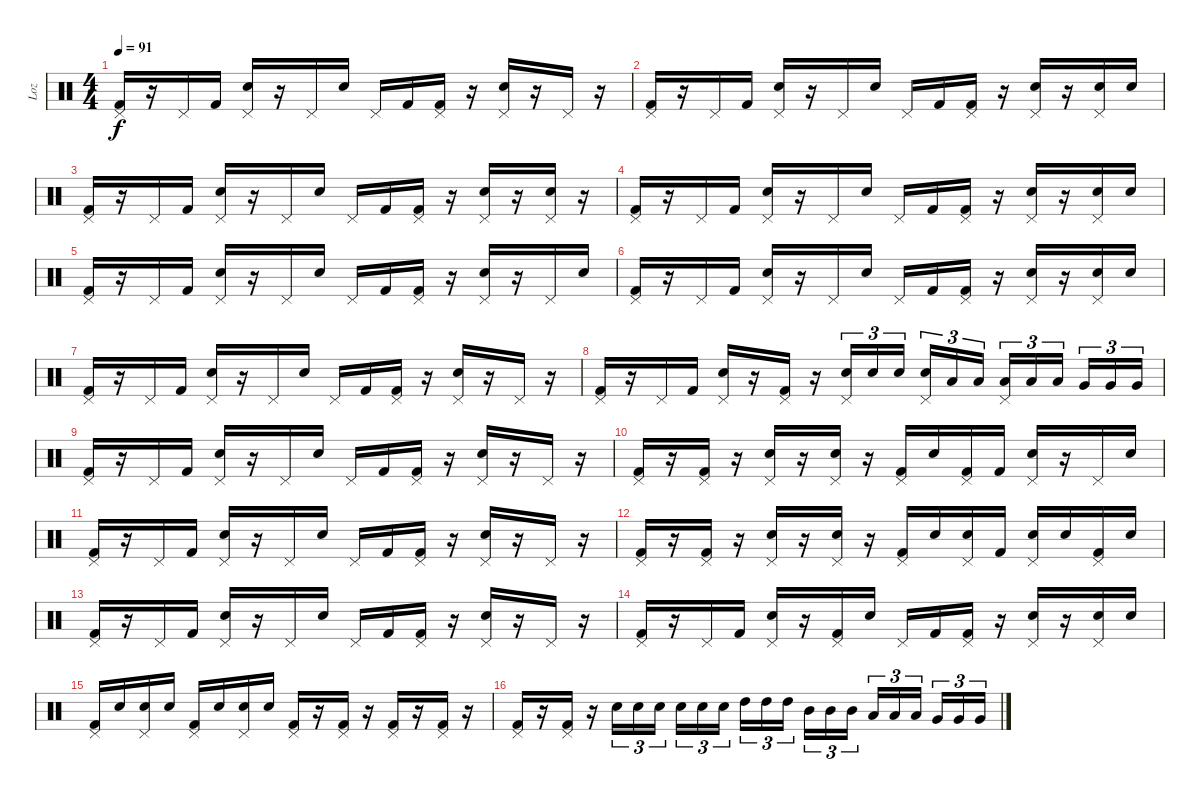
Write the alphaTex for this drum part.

\track ("Loz" "Loz") {instrument percussion}
\staff {score}
\articulation defaults
\ts (4 4)
\tempo 91
\clef neutral
\ks c
("Pedal Hi-Hat (hit)" "Kick (hit) 2").16{dy f} r.16 "Pedal Hi-Hat (hit)".16 "Kick (hit) 2".16 ("Pedal Hi-Hat (hit)" "Electric Snare (hit)").16 r.16 "Pedal Hi-Hat (hit)".16 "Electric Snare (hit)".16 "Pedal Hi-Hat (hit)".16 "Kick (hit) 2".16 ("Pedal Hi-Hat (hit)" "Kick (hit) 2").16 r.16 ("Pedal Hi-Hat (hit)" "Electric Snare (hit)").16 r.16 "Pedal Hi-Hat (hit)".16 r.16 |
("Pedal Hi-Hat (hit)" "Kick (hit) 2").16 r.16 "Pedal Hi-Hat (hit)".16 "Kick (hit) 2".16 ("Pedal Hi-Hat (hit)" "Electric Snare (hit)").16 r.16 "Pedal Hi-Hat (hit)".16 "Electric Snare (hit)".16 "Pedal Hi-Hat (hit)".16 "Kick (hit) 2".16 ("Pedal Hi-Hat (hit)" "Kick (hit) 2").16 r.16 ("Pedal Hi-Hat (hit)" "Electric Snare (hit)").16 r.16 ("Pedal Hi-Hat (hit)" "Electric Snare (hit)").16 "Electric Snare (hit)".16 |
("Pedal Hi-Hat (hit)" "Kick (hit) 2").16 r.16 "Pedal Hi-Hat (hit)".16 "Kick (hit) 2".16 ("Pedal Hi-Hat (hit)" "Electric Snare (hit)").16 r.16 "Pedal Hi-Hat (hit)".16 "Electric Snare (hit)".16 "Pedal Hi-Hat (hit)".16 "Kick (hit) 2".16 ("Pedal Hi-Hat (hit)" "Kick (hit) 2").16 r.16 ("Pedal Hi-Hat (hit)" "Electric Snare (hit)").16 r.16 ("Pedal Hi-Hat (hit)" "Electric Snare (hit)").16 r.16 |
("Pedal Hi-Hat (hit)" "Kick (hit) 2").16 r.16 "Pedal Hi-Hat (hit)".16 "Kick (hit) 2".16 ("Pedal Hi-Hat (hit)" "Electric Snare (hit)").16 r.16 "Pedal Hi-Hat (hit)".16 "Electric Snare (hit)".16 "Pedal Hi-Hat (hit)".16 "Kick (hit) 2".16 ("Pedal Hi-Hat (hit)" "Kick (hit) 2").16 r.16 ("Pedal Hi-Hat (hit)" "Electric Snare (hit)").16 r.16 ("Pedal Hi-Hat (hit)" "Electric Snare (hit)").16 "Electric Snare (hit)".16 |
("Pedal Hi-Hat (hit)" "Kick (hit) 2").16 r.16 "Pedal Hi-Hat (hit)".16 "Kick (hit) 2".16 ("Pedal Hi-Hat (hit)" "Electric Snare (hit)").16 r.16 "Pedal Hi-Hat (hit)".16 "Electric Snare (hit)".16 "Pedal Hi-Hat (hit)".16 "Kick (hit) 2".16 ("Pedal Hi-Hat (hit)" "Kick (hit) 2").16 r.16 ("Pedal Hi-Hat (hit)" "Electric Snare (hit)").16 r.16 "Pedal Hi-Hat (hit)".16 "Electric Snare (hit)".16 |
("Pedal Hi-Hat (hit)" "Kick (hit) 2").16 r.16 "Pedal Hi-Hat (hit)".16 "Kick (hit) 2".16 ("Pedal Hi-Hat (hit)" "Electric Snare (hit)").16 r.16 "Pedal Hi-Hat (hit)".16 "Electric Snare (hit)".16 "Pedal Hi-Hat (hit)".16 "Kick (hit) 2".16 ("Pedal Hi-Hat (hit)" "Kick (hit) 2").16 r.16 ("Pedal Hi-Hat (hit)" "Electric Snare (hit)").16 r.16 ("Pedal Hi-Hat (hit)" "Electric Snare (hit)").16 "Electric Snare (hit)".16 |
("Pedal Hi-Hat (hit)" "Kick (hit) 2").16 r.16 "Pedal Hi-Hat (hit)".16 "Kick (hit) 2".16 ("Pedal Hi-Hat (hit)" "Electric Snare (hit)").16 r.16 "Pedal Hi-Hat (hit)".16 "Electric Snare (hit)".16 "Pedal Hi-Hat (hit)".16 "Kick (hit) 2".16 ("Pedal Hi-Hat (hit)" "Kick (hit) 2").16 r.16 ("Pedal Hi-Hat (hit)" "Electric Snare (hit)").16 r.16 "Pedal Hi-Hat (hit)".16 r.16 |
("Pedal Hi-Hat (hit)" "Kick (hit) 2").16 r.16 "Pedal Hi-Hat (hit)".16 "Kick (hit) 2".16 ("Pedal Hi-Hat (hit)" "Electric Snare (hit)").16 r.16 ("Pedal Hi-Hat (hit)" "Kick (hit) 2").16 r.16 ("Pedal Hi-Hat (hit)" "Electric Snare (hit)").16{tu (3 2)} "Electric Snare (hit)".16{tu (3 2)} "Electric Snare (hit)".16{tu (3 2)} ("Pedal Hi-Hat (hit)" "Electric Snare (hit)").16{tu (3 2)} "Low Tom (hit)".16{tu (3 2)} "Low Tom (hit)".16{tu (3 2)} ("Pedal Hi-Hat (hit)" "Low Tom (hit)").16{tu (3 2)} "Low Tom (hit)".16{tu (3 2)} "Low Tom (hit)".16{tu (3 2)} "Very Low Tom (hit)".16{tu (3 2)} "Very Low Tom (hit)".16{tu (3 2)} "Very Low Tom (hit)".16{tu (3 2)} |
("Pedal Hi-Hat (hit)" "Kick (hit) 2").16 r.16 "Pedal Hi-Hat (hit)".16 "Kick (hit) 2".16 ("Pedal Hi-Hat (hit)" "Electric Snare (hit)").16 r.16 "Pedal Hi-Hat (hit)".16 "Electric Snare (hit)".16 "Pedal Hi-Hat (hit)".16 "Kick (hit) 2".16 ("Pedal Hi-Hat (hit)" "Kick (hit) 2").16 r.16 ("Pedal Hi-Hat (hit)" "Electric Snare (hit)").16 r.16 "Pedal Hi-Hat (hit)".16 r.16 |
("Pedal Hi-Hat (hit)" "Kick (hit) 2").16 r.16 ("Pedal Hi-Hat (hit)" "Kick (hit) 2").16 r.16 ("Pedal Hi-Hat (hit)" "Electric Snare (hit)").16 r.16 ("Pedal Hi-Hat (hit)" "Electric Snare (hit)").16 r.16 ("Pedal Hi-Hat (hit)" "Kick (hit) 2").16 "Electric Snare (hit)".16 ("Pedal Hi-Hat (hit)" "Kick (hit) 2").16 "Kick (hit) 2".16 ("Pedal Hi-Hat (hit)" "Electric Snare (hit)").16 r.16 "Pedal Hi-Hat (hit)".16 "Electric Snare (hit)".16 |
("Pedal Hi-Hat (hit)" "Kick (hit) 2").16 r.16 "Pedal Hi-Hat (hit)".16 "Kick (hit) 2".16 ("Pedal Hi-Hat (hit)" "Electric Snare (hit)").16 r.16 "Pedal Hi-Hat (hit)".16 "Electric Snare (hit)".16 "Pedal Hi-Hat (hit)".16 "Kick (hit) 2".16 ("Pedal Hi-Hat (hit)" "Kick (hit) 2").16 r.16 ("Pedal Hi-Hat (hit)" "Electric Snare (hit)").16 r.16 "Pedal Hi-Hat (hit)".16 r.16 |
("Pedal Hi-Hat (hit)" "Kick (hit) 2").16 r.16 ("Pedal Hi-Hat (hit)" "Kick (hit) 2").16 r.16 ("Pedal Hi-Hat (hit)" "Electric Snare (hit)").16 r.16 ("Pedal Hi-Hat (hit)" "Electric Snare (hit)").16 r.16 ("Pedal Hi-Hat (hit)" "Kick (hit) 2").16 "Electric Snare (hit)".16 ("Pedal Hi-Hat (hit)" "Electric Snare (hit)").16 "Kick (hit) 2".16 ("Pedal Hi-Hat (hit)" "Electric Snare (hit)").16 "Electric Snare (hit)".16 ("Pedal Hi-Hat (hit)" "Kick (hit) 2").16 "Electric Snare (hit)".16 |
("Pedal Hi-Hat (hit)" "Kick (hit) 2").16 r.16 "Pedal Hi-Hat (hit)".16 "Kick (hit) 2".16 ("Pedal Hi-Hat (hit)" "Electric Snare (hit)").16 r.16 "Pedal Hi-Hat (hit)".16 "Electric Snare (hit)".16 "Pedal Hi-Hat (hit)".16 "Kick (hit) 2".16 ("Pedal Hi-Hat (hit)" "Kick (hit) 2").16 r.16 ("Pedal Hi-Hat (hit)" "Electric Snare (hit)").16 r.16 "Pedal Hi-Hat (hit)".16 r.16 |
("Pedal Hi-Hat (hit)" "Kick (hit) 2").16 r.16 "Pedal Hi-Hat (hit)".16 "Kick (hit) 2".16 ("Pedal Hi-Hat (hit)" "Electric Snare (hit)").16 r.16 ("Pedal Hi-Hat (hit)" "Kick (hit) 2").16 "Electric Snare (hit)".16 "Pedal Hi-Hat (hit)".16 "Kick (hit) 2".16 ("Pedal Hi-Hat (hit)" "Kick (hit) 2").16 r.16 ("Pedal Hi-Hat (hit)" "Electric Snare (hit)").16 r.16 ("Pedal Hi-Hat (hit)" "Electric Snare (hit)").16 "Electric Snare (hit)".16 |
("Pedal Hi-Hat (hit)" "Kick (hit) 2").16 "Electric Snare (hit)".16 ("Pedal Hi-Hat (hit)" "Electric Snare (hit)").16 "Electric Snare (hit)".16 ("Pedal Hi-Hat (hit)" "Kick (hit) 2").16 "Electric Snare (hit)".16 ("Pedal Hi-Hat (hit)" "Electric Snare (hit)").16 "Electric Snare (hit)".16 ("Pedal Hi-Hat (hit)" "Kick (hit) 2").16 r.16 ("Pedal Hi-Hat (hit)" "Kick (hit) 2").16 r.16 ("Pedal Hi-Hat (hit)" "Kick (hit) 2").16 r.16 ("Pedal Hi-Hat (hit)" "Kick (hit) 2").16 r.16 |
("Pedal Hi-Hat (hit)" "Kick (hit) 2").16 r.16 ("Pedal Hi-Hat (hit)" "Kick (hit) 2").16 r.16 "Electric Snare (hit)".16{tu (3 2)} "Electric Snare (hit)".16{tu (3 2)} "Electric Snare (hit)".16{tu (3 2)} "Electric Snare (hit)".16{tu (3 2)} "Electric Snare (hit)".16{tu (3 2)} "Electric Snare (hit)".16{tu (3 2)} "High Tom (hit)".16{tu (3 2)} "High Tom (hit)".16{tu (3 2)} "High Tom (hit)".16{tu (3 2)} "Mid Tom (hit)".16{tu (3 2)} "Mid Tom (hit)".16{tu (3 2)} "Mid Tom (hit)".16{tu (3 2)} "Low Tom (hit)".16{tu (3 2)} "Low Tom (hit)".16{tu (3 2)} "Low Tom (hit)".16{tu (3 2)} "Very Low Tom (hit)".16{tu (3 2)} "Very Low Tom (hit)".16{tu (3 2)} "Very Low Tom (hit)".16{tu (3 2)}
